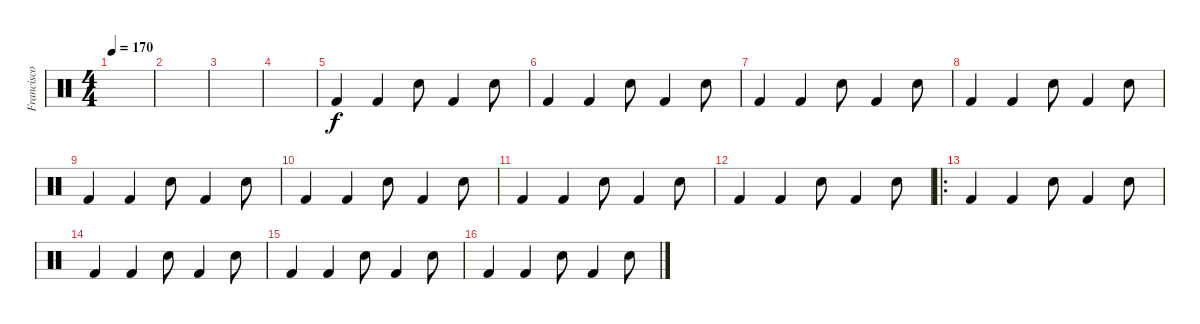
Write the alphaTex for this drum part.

\track ("Francisco (batería)" "Francisco ") {instrument percussion}
\staff {score}
\articulation defaults
\ts (4 4)
\tempo 170
\clef neutral
\ks c
|
|
|
|
"Kick (hit) 2".4{volume 15} "Kick (hit) 2".4 "Hand Clap (hit)".8 "Kick (hit) 2".4 "Hand Clap (hit)".8 |
"Kick (hit) 2".4 "Kick (hit) 2".4 "Hand Clap (hit)".8 "Kick (hit) 2".4 "Hand Clap (hit)".8 |
"Kick (hit) 2".4 "Kick (hit) 2".4 "Hand Clap (hit)".8 "Kick (hit) 2".4 "Hand Clap (hit)".8 |
"Kick (hit) 2".4 "Kick (hit) 2".4 "Hand Clap (hit)".8 "Kick (hit) 2".4 "Hand Clap (hit)".8 |
"Kick (hit) 2".4 "Kick (hit) 2".4 "Hand Clap (hit)".8 "Kick (hit) 2".4 "Hand Clap (hit)".8 |
"Kick (hit) 2".4 "Kick (hit) 2".4 "Hand Clap (hit)".8 "Kick (hit) 2".4 "Hand Clap (hit)".8 |
"Kick (hit) 2".4 "Kick (hit) 2".4 "Hand Clap (hit)".8 "Kick (hit) 2".4 "Hand Clap (hit)".8 |
"Kick (hit) 2".4 "Kick (hit) 2".4 "Hand Clap (hit)".8 "Kick (hit) 2".4 "Hand Clap (hit)".8 |
\ro "Kick (hit) 2".4 "Kick (hit) 2".4 "Hand Clap (hit)".8 "Kick (hit) 2".4 "Hand Clap (hit)".8
|
"Kick (hit) 2".4 "Kick (hit) 2".4 "Hand Clap (hit)".8 "Kick (hit) 2".4 "Hand Clap (hit)".8 |
"Kick (hit) 2".4 "Kick (hit) 2".4 "Hand Clap (hit)".8 "Kick (hit) 2".4 "Hand Clap (hit)".8 |
"Kick (hit) 2".4 "Kick (hit) 2".4 "Hand Clap (hit)".8 "Kick (hit) 2".4 "Hand Clap (hit)".8
